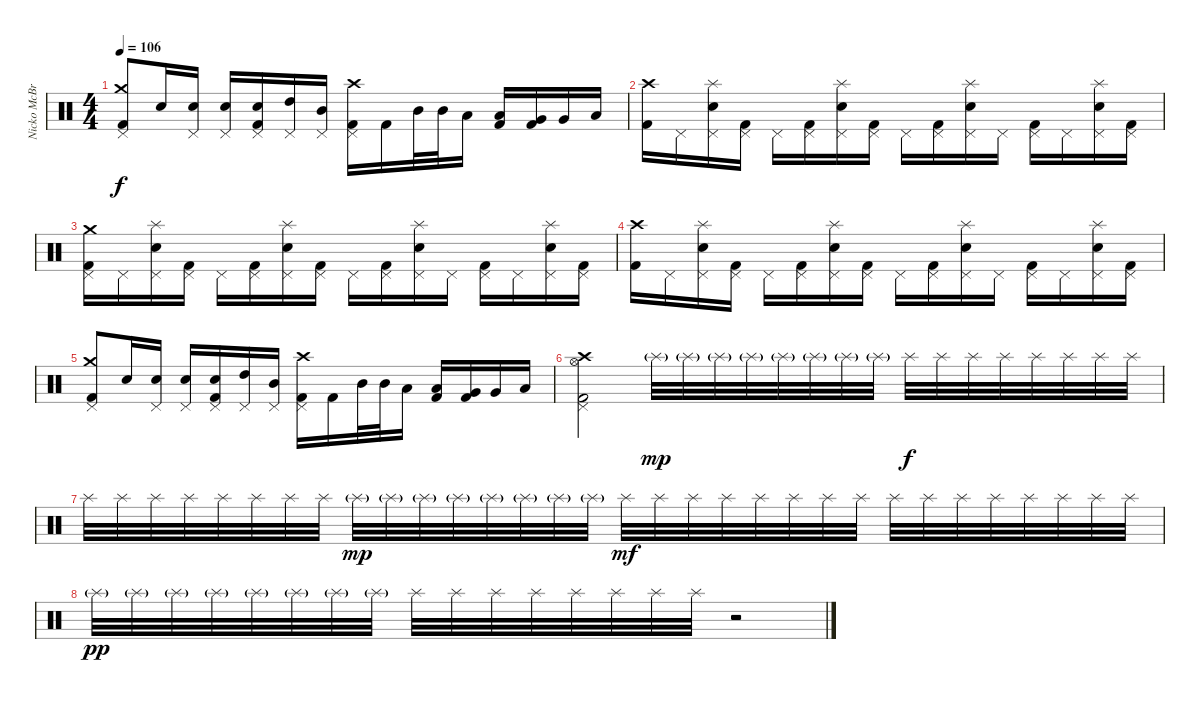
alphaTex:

\track ("Nicko McBrain" "Nicko McBr") {instrument percussion}
\staff {score}
\articulation defaults
\ts (4 4)
\tempo 106
\clef neutral
\ks c
("Pedal Hi-Hat (hit)" "Crash medium (hit)" "Kick (hit) 2").8{dy f} "Snare (hit) 2".16 ("Pedal Hi-Hat (hit)" "Snare (hit) 2").16 ("Pedal Hi-Hat (hit)" "Snare (hit) 2").16 ("Pedal Hi-Hat (hit)" "Snare (hit) 2" "Kick (hit) 2").16 ("Pedal Hi-Hat (hit)" "High Tom (hit)").16 ("Pedal Hi-Hat (hit)" "Mid Tom (hit)").16 ("Pedal Hi-Hat (hit)" "Crash high (hit)" "Kick (hit) 2").16 "Kick (hit) 2".16 "Mid Tom (hit)".32 "Mid Tom (hit)".32 "Low Tom (hit)".16 ("Low Tom (hit)" "Kick (hit) 2").16 ("Very Low Tom (hit)" "Kick (hit) 2").16 "Very Low Tom (hit)".16 "Low Floor Tom (hit)".16 |
("Crash high (hit)" "Kick (hit) 2").16 "Pedal Hi-Hat (hit)".16 ("Pedal Hi-Hat (hit)" "Snare (hit) 2" "Splash (hit)").16 ("Pedal Hi-Hat (hit)" "Kick (hit) 2").16 "Pedal Hi-Hat (hit)".16 ("Pedal Hi-Hat (hit)" "Kick (hit) 2").16 ("Pedal Hi-Hat (hit)" "Snare (hit) 2" "Splash (hit)").16 ("Pedal Hi-Hat (hit)" "Kick (hit) 2").16 "Pedal Hi-Hat (hit)".16 ("Pedal Hi-Hat (hit)" "Kick (hit) 2").16 ("Pedal Hi-Hat (hit)" "Snare (hit) 2" "Splash (hit)").16 "Pedal Hi-Hat (hit)".16 ("Pedal Hi-Hat (hit)" "Kick (hit) 2").16 "Pedal Hi-Hat (hit)".16 ("Pedal Hi-Hat (hit)" "Snare (hit) 2" "Splash (hit)").16 ("Pedal Hi-Hat (hit)" "Kick (hit) 2").16 |
("Pedal Hi-Hat (hit)" "Crash medium (hit)" "Kick (hit) 2").16 "Pedal Hi-Hat (hit)".16 ("Pedal Hi-Hat (hit)" "Snare (hit) 2" "Splash (hit)").16 ("Pedal Hi-Hat (hit)" "Kick (hit) 2").16 "Pedal Hi-Hat (hit)".16 ("Pedal Hi-Hat (hit)" "Kick (hit) 2").16 ("Pedal Hi-Hat (hit)" "Snare (hit) 2" "Splash (hit)").16 ("Pedal Hi-Hat (hit)" "Kick (hit) 2").16 "Pedal Hi-Hat (hit)".16 ("Pedal Hi-Hat (hit)" "Kick (hit) 2").16 ("Pedal Hi-Hat (hit)" "Snare (hit) 2" "Splash (hit)").16 "Pedal Hi-Hat (hit)".16 ("Pedal Hi-Hat (hit)" "Kick (hit) 2").16 "Pedal Hi-Hat (hit)".16 ("Pedal Hi-Hat (hit)" "Snare (hit) 2" "Splash (hit)").16 ("Pedal Hi-Hat (hit)" "Kick (hit) 2").16 |
("Crash high (hit)" "Kick (hit) 2").16 "Pedal Hi-Hat (hit)".16 ("Pedal Hi-Hat (hit)" "Snare (hit) 2" "Splash (hit)").16 ("Pedal Hi-Hat (hit)" "Kick (hit) 2").16 "Pedal Hi-Hat (hit)".16 ("Pedal Hi-Hat (hit)" "Kick (hit) 2").16 ("Pedal Hi-Hat (hit)" "Snare (hit) 2" "Splash (hit)").16 ("Pedal Hi-Hat (hit)" "Kick (hit) 2").16 "Pedal Hi-Hat (hit)".16 ("Pedal Hi-Hat (hit)" "Kick (hit) 2").16 ("Pedal Hi-Hat (hit)" "Snare (hit) 2" "Splash (hit)").16 "Pedal Hi-Hat (hit)".16 ("Pedal Hi-Hat (hit)" "Kick (hit) 2").16 "Pedal Hi-Hat (hit)".16 ("Pedal Hi-Hat (hit)" "Snare (hit) 2" "Splash (hit)").16 ("Pedal Hi-Hat (hit)" "Kick (hit) 2").16 |
("Pedal Hi-Hat (hit)" "Crash medium (hit)" "Kick (hit) 2").8 "Snare (hit) 2".16 ("Pedal Hi-Hat (hit)" "Snare (hit) 2").16 ("Pedal Hi-Hat (hit)" "Snare (hit) 2").16 ("Pedal Hi-Hat (hit)" "Snare (hit) 2" "Kick (hit) 2").16 ("Pedal Hi-Hat (hit)" "High Tom (hit)").16 ("Pedal Hi-Hat (hit)" "Mid Tom (hit)").16 ("Pedal Hi-Hat (hit)" "Crash high (hit)" "Kick (hit) 2").16 "Kick (hit) 2".16 "Mid Tom (hit)".32 "Mid Tom (hit)".32 "Low Tom (hit)".16 ("Low Tom (hit)" "Kick (hit) 2").16 ("Very Low Tom (hit)" "Kick (hit) 2").16 "Very Low Tom (hit)".16 "Low Floor Tom (hit)".16 |
("Kick (hit) 2" "Pedal Hi-Hat (hit)" "Hi-Hat (open)" "Crash high (hit)").2 "Splash (hit)"{g}.32{dy mp} "Splash (hit)"{g}.32 "Splash (hit)"{g}.32 "Splash (hit)"{g}.32 "Splash (hit)"{g}.32 "Splash (hit)"{g}.32 "Splash (hit)"{g}.32 "Splash (hit)"{g}.32 "Splash (hit)".32{dy f} "Splash (hit)".32 "Splash (hit)".32 "Splash (hit)".32 "Splash (hit)".32 "Splash (hit)".32 "Splash (hit)".32 "Splash (hit)".32 |
"Splash (hit)".32 "Splash (hit)".32 "Splash (hit)".32 "Splash (hit)".32 "Splash (hit)".32 "Splash (hit)".32 "Splash (hit)".32 "Splash (hit)".32 "Splash (hit)"{g}.32{dy mp} "Splash (hit)"{g}.32 "Splash (hit)"{g}.32 "Splash (hit)"{g}.32 "Splash (hit)"{g}.32 "Splash (hit)"{g}.32 "Splash (hit)"{g}.32 "Splash (hit)"{g}.32 "Splash (hit)".32{dy mf} "Splash (hit)".32 "Splash (hit)".32 "Splash (hit)".32 "Splash (hit)".32 "Splash (hit)".32 "Splash (hit)".32 "Splash (hit)".32 "Splash (hit)".32 "Splash (hit)".32 "Splash (hit)".32 "Splash (hit)".32 "Splash (hit)".32 "Splash (hit)".32 "Splash (hit)".32 "Splash (hit)".32 |
"Splash (hit)"{g}.32{dy pp} "Splash (hit)"{g}.32 "Splash (hit)"{g}.32 "Splash (hit)"{g}.32 "Splash (hit)"{g}.32 "Splash (hit)"{g}.32 "Splash (hit)"{g}.32 "Splash (hit)"{g}.32 "Splash (hit)".32 "Splash (hit)".32 "Splash (hit)".32 "Splash (hit)".32 "Splash (hit)".32 "Splash (hit)".32 "Splash (hit)".32 "Splash (hit)".32 r.2
